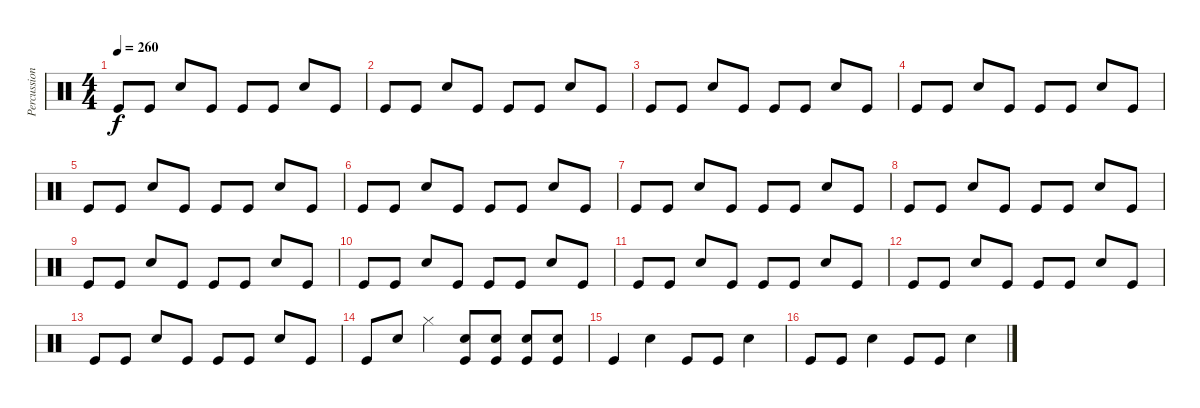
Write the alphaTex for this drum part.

\track ("Percussion" "Percussion") {instrument percussion}
\staff {score}
\articulation defaults
\ts (4 4)
\tempo 260
\clef neutral
\ks c "Kick (hit)".8{dy f} "Kick (hit)".8 "Snare (hit) 2".8 "Kick (hit)".8 "Kick (hit)".8 "Kick (hit)".8 "Snare (hit) 2".8 "Kick (hit)".8
|
"Kick (hit)".8 "Kick (hit)".8 "Snare (hit) 2".8 "Kick (hit)".8 "Kick (hit)".8 "Kick (hit)".8 "Snare (hit) 2".8 "Kick (hit)".8 |
"Kick (hit)".8 "Kick (hit)".8 "Snare (hit) 2".8 "Kick (hit)".8 "Kick (hit)".8 "Kick (hit)".8 "Snare (hit) 2".8 "Kick (hit)".8 |
"Kick (hit)".8 "Kick (hit)".8 "Snare (hit) 2".8 "Kick (hit)".8 "Kick (hit)".8 "Kick (hit)".8 "Snare (hit) 2".8 "Kick (hit)".8 |
"Kick (hit)".8 "Kick (hit)".8 "Snare (hit) 2".8 "Kick (hit)".8 "Kick (hit)".8 "Kick (hit)".8 "Snare (hit) 2".8 "Kick (hit)".8 |
"Kick (hit)".8 "Kick (hit)".8 "Snare (hit) 2".8 "Kick (hit)".8 "Kick (hit)".8 "Kick (hit)".8 "Snare (hit) 2".8 "Kick (hit)".8 |
"Kick (hit)".8 "Kick (hit)".8 "Snare (hit) 2".8 "Kick (hit)".8 "Kick (hit)".8 "Kick (hit)".8 "Snare (hit) 2".8 "Kick (hit)".8 |
"Kick (hit)".8 "Kick (hit)".8 "Snare (hit) 2".8 "Kick (hit)".8 "Kick (hit)".8 "Kick (hit)".8 "Snare (hit) 2".8 "Kick (hit)".8 |
"Kick (hit)".8 "Kick (hit)".8 "Snare (hit) 2".8 "Kick (hit)".8 "Kick (hit)".8 "Kick (hit)".8 "Snare (hit) 2".8 "Kick (hit)".8 |
"Kick (hit)".8 "Kick (hit)".8 "Snare (hit) 2".8 "Kick (hit)".8 "Kick (hit)".8 "Kick (hit)".8 "Snare (hit) 2".8 "Kick (hit)".8 |
"Kick (hit)".8 "Kick (hit)".8 "Snare (hit) 2".8 "Kick (hit)".8 "Kick (hit)".8 "Kick (hit)".8 "Snare (hit) 2".8 "Kick (hit)".8 |
"Kick (hit)".8 "Kick (hit)".8 "Snare (hit) 2".8 "Kick (hit)".8 "Kick (hit)".8 "Kick (hit)".8 "Snare (hit) 2".8 "Kick (hit)".8 |
"Kick (hit)".8 "Kick (hit)".8 "Snare (hit) 2".8 "Kick (hit)".8 "Kick (hit)".8 "Kick (hit)".8 "Snare (hit) 2".8 "Kick (hit)".8 |
"Kick (hit)".8 "Snare (hit) 2".8 "Hi-Hat (closed)".4 ("Snare (hit) 2" "Kick (hit)").8 ("Snare (hit) 2" "Kick (hit)").8 ("Snare (hit) 2" "Kick (hit)").8 ("Snare (hit) 2" "Kick (hit)").8 |
"Kick (hit)".4 "Snare (hit) 2".4 "Kick (hit)".8 "Kick (hit)".8 "Snare (hit) 2".4 |
"Kick (hit)".8 "Kick (hit)".8 "Snare (hit) 2".4 "Kick (hit)".8 "Kick (hit)".8 "Snare (hit) 2".4
